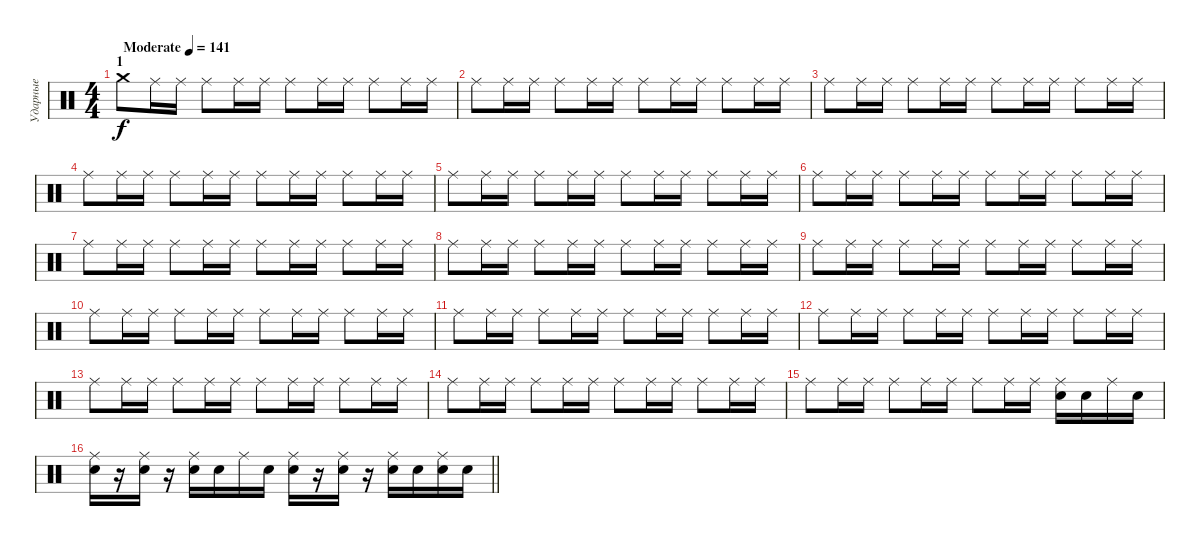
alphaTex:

\track ("Ударные" "Ударные") {instrument percussion}
\staff {score}
\articulation defaults
\ts (4 4)
\section ("" "1")
\tempo (141 "Moderate")
\clef neutral
\ks c "Crash medium (hit)".8{dy f} "Ride (middle)".16 "Ride (middle)".16 "Ride (middle)".8 "Ride (middle)".16 "Ride (middle)".16 "Ride (middle)".8 "Ride (middle)".16 "Ride (middle)".16 "Ride (middle)".8 "Ride (middle)".16 "Ride (middle)".16
|
"Ride (middle)".8 "Ride (middle)".16 "Ride (middle)".16 "Ride (middle)".8 "Ride (middle)".16 "Ride (middle)".16 "Ride (middle)".8 "Ride (middle)".16 "Ride (middle)".16 "Ride (middle)".8 "Ride (middle)".16 "Ride (middle)".16 |
"Ride (middle)".8 "Ride (middle)".16 "Ride (middle)".16 "Ride (middle)".8 "Ride (middle)".16 "Ride (middle)".16 "Ride (middle)".8 "Ride (middle)".16 "Ride (middle)".16 "Ride (middle)".8 "Ride (middle)".16 "Ride (middle)".16 |
"Ride (middle)".8 "Ride (middle)".16 "Ride (middle)".16 "Ride (middle)".8 "Ride (middle)".16 "Ride (middle)".16 "Ride (middle)".8 "Ride (middle)".16 "Ride (middle)".16 "Ride (middle)".8 "Ride (middle)".16 "Ride (middle)".16 |
"Ride (middle)".8 "Ride (middle)".16 "Ride (middle)".16 "Ride (middle)".8 "Ride (middle)".16 "Ride (middle)".16 "Ride (middle)".8 "Ride (middle)".16 "Ride (middle)".16 "Ride (middle)".8 "Ride (middle)".16 "Ride (middle)".16 |
"Ride (middle)".8 "Ride (middle)".16 "Ride (middle)".16 "Ride (middle)".8 "Ride (middle)".16 "Ride (middle)".16 "Ride (middle)".8 "Ride (middle)".16 "Ride (middle)".16 "Ride (middle)".8 "Ride (middle)".16 "Ride (middle)".16 |
"Ride (middle)".8 "Ride (middle)".16 "Ride (middle)".16 "Ride (middle)".8 "Ride (middle)".16 "Ride (middle)".16 "Ride (middle)".8 "Ride (middle)".16 "Ride (middle)".16 "Ride (middle)".8 "Ride (middle)".16 "Ride (middle)".16 |
"Ride (middle)".8 "Ride (middle)".16 "Ride (middle)".16 "Ride (middle)".8 "Ride (middle)".16 "Ride (middle)".16 "Ride (middle)".8 "Ride (middle)".16 "Ride (middle)".16 "Ride (middle)".8 "Ride (middle)".16 "Ride (middle)".16 |
"Ride (middle)".8 "Ride (middle)".16 "Ride (middle)".16 "Ride (middle)".8 "Ride (middle)".16 "Ride (middle)".16 "Ride (middle)".8 "Ride (middle)".16 "Ride (middle)".16 "Ride (middle)".8 "Ride (middle)".16 "Ride (middle)".16 |
"Ride (middle)".8 "Ride (middle)".16 "Ride (middle)".16 "Ride (middle)".8 "Ride (middle)".16 "Ride (middle)".16 "Ride (middle)".8 "Ride (middle)".16 "Ride (middle)".16 "Ride (middle)".8 "Ride (middle)".16 "Ride (middle)".16 |
"Ride (middle)".8 "Ride (middle)".16 "Ride (middle)".16 "Ride (middle)".8 "Ride (middle)".16 "Ride (middle)".16 "Ride (middle)".8 "Ride (middle)".16 "Ride (middle)".16 "Ride (middle)".8 "Ride (middle)".16 "Ride (middle)".16 |
"Ride (middle)".8 "Ride (middle)".16 "Ride (middle)".16 "Ride (middle)".8 "Ride (middle)".16 "Ride (middle)".16 "Ride (middle)".8 "Ride (middle)".16 "Ride (middle)".16 "Ride (middle)".8 "Ride (middle)".16 "Ride (middle)".16 |
"Ride (middle)".8 "Ride (middle)".16 "Ride (middle)".16 "Ride (middle)".8 "Ride (middle)".16 "Ride (middle)".16 "Ride (middle)".8 "Ride (middle)".16 "Ride (middle)".16 "Ride (middle)".8 "Ride (middle)".16 "Ride (middle)".16 |
"Ride (middle)".8 "Ride (middle)".16 "Ride (middle)".16 "Ride (middle)".8 "Ride (middle)".16 "Ride (middle)".16 "Ride (middle)".8 "Ride (middle)".16 "Ride (middle)".16 "Ride (middle)".8 "Ride (middle)".16 "Ride (middle)".16 |
"Ride (middle)".8 "Ride (middle)".16 "Ride (middle)".16 "Ride (middle)".8 "Ride (middle)".16 "Ride (middle)".16 "Ride (middle)".8 "Ride (middle)".16 "Ride (middle)".16 ("Ride (middle)" "Snare (hit) 2").16 "Snare (hit) 2".16 "Ride (middle)".16 "Snare (hit) 2".16 |
\barLineRight lightlight
("Ride (middle)" "Snare (hit) 2").16 r.16 ("Ride (middle)" "Snare (hit) 2").16 r.16 ("Ride (middle)" "Snare (hit) 2").16 "Snare (hit) 2".16 "Ride (middle)".16 "Snare (hit) 2".16 ("Ride (middle)" "Snare (hit) 2").16 r.16 ("Ride (middle)" "Snare (hit) 2").16 r.16 ("Ride (middle)" "Snare (hit) 2").16 "Snare (hit) 2".16 ("Ride (middle)" "Snare (hit) 2").16 "Snare (hit) 2".16
